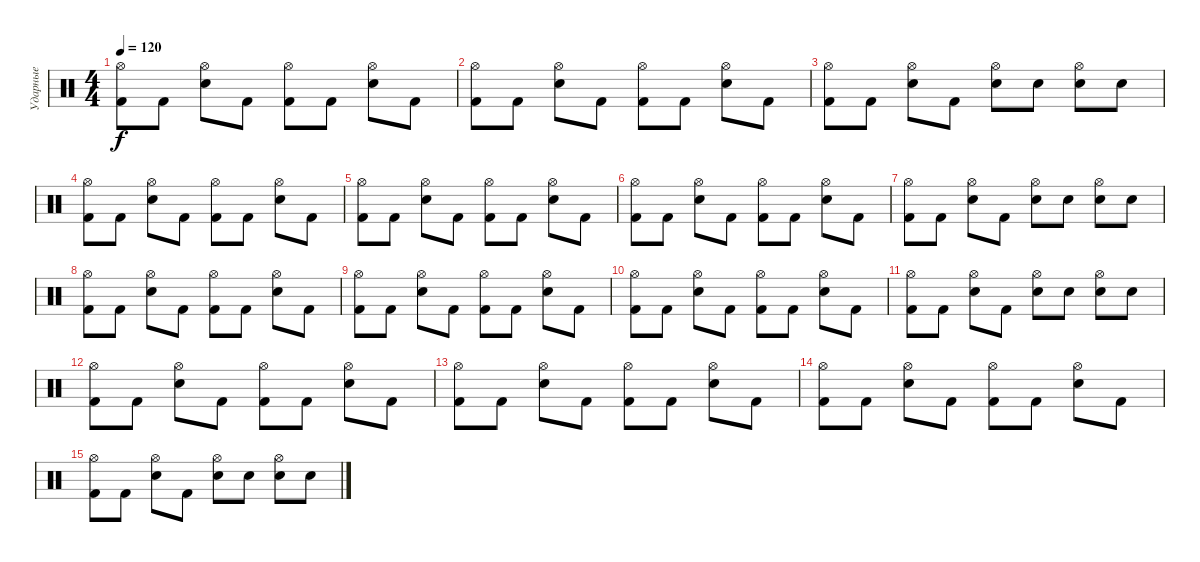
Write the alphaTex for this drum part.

\track ("Ударные" "Ударные") {instrument percussion}
\staff {score}
\articulation defaults
\ts (4 4)
\tempo 120
\clef neutral
\ks c
("Hi-Hat (open)" "Kick (hit) 2").8{dy f} "Kick (hit) 2".8 ("Hi-Hat (open)" "Snare (hit) 2").8 "Kick (hit) 2".8 ("Hi-Hat (open)" "Kick (hit) 2").8 "Kick (hit) 2".8 ("Hi-Hat (open)" "Snare (hit) 2").8 "Kick (hit) 2".8 |
("Hi-Hat (open)" "Kick (hit) 2").8 "Kick (hit) 2".8 ("Hi-Hat (open)" "Snare (hit) 2").8 "Kick (hit) 2".8 ("Hi-Hat (open)" "Kick (hit) 2").8 "Kick (hit) 2".8 ("Hi-Hat (open)" "Snare (hit) 2").8 "Kick (hit) 2".8 |
("Hi-Hat (open)" "Kick (hit) 2").8 "Kick (hit) 2".8 ("Hi-Hat (open)" "Snare (hit) 2").8 "Kick (hit) 2".8 ("Hi-Hat (open)" "Snare (hit) 2").8 "Snare (hit) 2".8 ("Hi-Hat (open)" "Snare (hit) 2").8 "Snare (hit) 2".8 |
("Hi-Hat (open)" "Kick (hit) 2").8 "Kick (hit) 2".8 ("Hi-Hat (open)" "Snare (hit) 2").8 "Kick (hit) 2".8 ("Hi-Hat (open)" "Kick (hit) 2").8 "Kick (hit) 2".8 ("Hi-Hat (open)" "Snare (hit) 2").8 "Kick (hit) 2".8 |
("Hi-Hat (open)" "Kick (hit) 2").8 "Kick (hit) 2".8 ("Hi-Hat (open)" "Snare (hit) 2").8 "Kick (hit) 2".8 ("Hi-Hat (open)" "Kick (hit) 2").8 "Kick (hit) 2".8 ("Hi-Hat (open)" "Snare (hit) 2").8 "Kick (hit) 2".8 |
("Hi-Hat (open)" "Kick (hit) 2").8 "Kick (hit) 2".8 ("Hi-Hat (open)" "Snare (hit) 2").8 "Kick (hit) 2".8 ("Hi-Hat (open)" "Kick (hit) 2").8 "Kick (hit) 2".8 ("Hi-Hat (open)" "Snare (hit) 2").8 "Kick (hit) 2".8 |
("Hi-Hat (open)" "Kick (hit) 2").8 "Kick (hit) 2".8 ("Hi-Hat (open)" "Snare (hit) 2").8 "Kick (hit) 2".8 ("Hi-Hat (open)" "Snare (hit) 2").8 "Snare (hit) 2".8 ("Hi-Hat (open)" "Snare (hit) 2").8 "Snare (hit) 2".8 |
("Hi-Hat (open)" "Kick (hit) 2").8 "Kick (hit) 2".8 ("Hi-Hat (open)" "Snare (hit) 2").8 "Kick (hit) 2".8 ("Hi-Hat (open)" "Kick (hit) 2").8 "Kick (hit) 2".8 ("Hi-Hat (open)" "Snare (hit) 2").8 "Kick (hit) 2".8 |
("Hi-Hat (open)" "Kick (hit) 2").8 "Kick (hit) 2".8 ("Hi-Hat (open)" "Snare (hit) 2").8 "Kick (hit) 2".8 ("Hi-Hat (open)" "Kick (hit) 2").8 "Kick (hit) 2".8 ("Hi-Hat (open)" "Snare (hit) 2").8 "Kick (hit) 2".8 |
("Hi-Hat (open)" "Kick (hit) 2").8 "Kick (hit) 2".8 ("Hi-Hat (open)" "Snare (hit) 2").8 "Kick (hit) 2".8 ("Hi-Hat (open)" "Kick (hit) 2").8 "Kick (hit) 2".8 ("Hi-Hat (open)" "Snare (hit) 2").8 "Kick (hit) 2".8 |
("Hi-Hat (open)" "Kick (hit) 2").8 "Kick (hit) 2".8 ("Hi-Hat (open)" "Snare (hit) 2").8 "Kick (hit) 2".8 ("Hi-Hat (open)" "Snare (hit) 2").8 "Snare (hit) 2".8 ("Hi-Hat (open)" "Snare (hit) 2").8 "Snare (hit) 2".8 |
("Hi-Hat (open)" "Kick (hit) 2").8 "Kick (hit) 2".8 ("Hi-Hat (open)" "Snare (hit) 2").8 "Kick (hit) 2".8 ("Hi-Hat (open)" "Kick (hit) 2").8 "Kick (hit) 2".8 ("Hi-Hat (open)" "Snare (hit) 2").8 "Kick (hit) 2".8 |
("Hi-Hat (open)" "Kick (hit) 2").8 "Kick (hit) 2".8 ("Hi-Hat (open)" "Snare (hit) 2").8 "Kick (hit) 2".8 ("Hi-Hat (open)" "Kick (hit) 2").8 "Kick (hit) 2".8 ("Hi-Hat (open)" "Snare (hit) 2").8 "Kick (hit) 2".8 |
("Hi-Hat (open)" "Kick (hit) 2").8 "Kick (hit) 2".8 ("Hi-Hat (open)" "Snare (hit) 2").8 "Kick (hit) 2".8 ("Hi-Hat (open)" "Kick (hit) 2").8 "Kick (hit) 2".8 ("Hi-Hat (open)" "Snare (hit) 2").8 "Kick (hit) 2".8 |
("Hi-Hat (open)" "Kick (hit) 2").8 "Kick (hit) 2".8 ("Hi-Hat (open)" "Snare (hit) 2").8 "Kick (hit) 2".8 ("Hi-Hat (open)" "Snare (hit) 2").8 "Snare (hit) 2".8 ("Hi-Hat (open)" "Snare (hit) 2").8 "Snare (hit) 2".8
